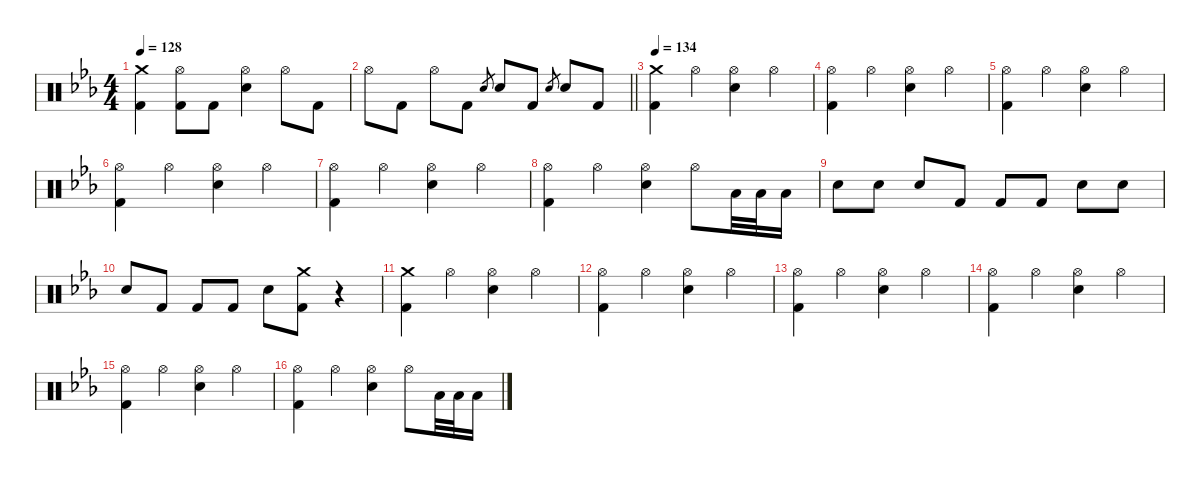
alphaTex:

\defaultSystemsLayout 4
\hideDynamics
\bracketExtendMode nobrackets
\singleTrackTrackNamePolicy hidden
\multiTrackTrackNamePolicy hidden
\firstSystemTrackNameMode fullname
\firstSystemTrackNameOrientation horizontal
\otherSystemsTrackNameOrientation horizontal
\track ("Drums" "drm.") {instrument percussion}
\staff {score}
\articulation defaults
\ts (4 4)
\tempo 128
\clef neutral
\ks cminor
("Crash medium (hit)"{acc forcenatural} "Kick (hit) 2"{acc forcenatural}).4{dy f} ("Hi-Hat (open)"{acc forcenatural} "Kick (hit) 2"{acc forcenatural}).8{dy mp} "Kick (hit) 2"{acc forcenatural}.8{dy f} ("Hi-Hat (open)"{acc forcenatural} "Snare (hit) 2"{acc forcenatural}).4{dy mp} "Hi-Hat (open)"{acc forcenatural}.8 "Kick (hit) 2"{acc forcenatural}.8{dy f} |
\barLineRight lightlight "Hi-Hat (open)"{acc forcenatural}.8{dy mp} "Kick (hit) 2"{acc forcenatural}.8{dy f} "Hi-Hat (open)"{acc forcenatural}.8{dy mp} "Kick (hit) 2"{acc forcenatural}.8{dy f} "Electric Snare (hit)"{acc forcenatural}.8{gr dy mf} "Snare (hit) 2"{acc forcenatural}.8{dy f} "Kick (hit) 2"{acc forcenatural}.8 "Electric Snare (hit)"{acc forcenatural}.8{gr dy mf} "Snare (hit) 2"{acc forcenatural}.8{dy f} "Kick (hit) 2"{acc forcenatural}.8
|
\tempo 134
("Crash medium (hit)"{acc forcenatural} "Kick (hit) 2"{acc forcenatural}).4 "Hi-Hat (open)"{acc forcenatural}.4{dy mp} ("Hi-Hat (open)"{acc forcenatural} "Snare (hit) 2"{acc forcenatural}).4 "Hi-Hat (open)"{acc forcenatural}.4 |
("Hi-Hat (open)"{acc forcenatural} "Kick (hit) 2"{acc forcenatural}).4 "Hi-Hat (open)"{acc forcenatural}.4 ("Hi-Hat (open)"{acc forcenatural} "Snare (hit) 2"{acc forcenatural}).4 "Hi-Hat (open)"{acc forcenatural}.4 |
("Hi-Hat (open)"{acc forcenatural} "Kick (hit) 2"{acc forcenatural}).4 "Hi-Hat (open)"{acc forcenatural}.4 ("Hi-Hat (open)"{acc forcenatural} "Snare (hit) 2"{acc forcenatural}).4 "Hi-Hat (open)"{acc forcenatural}.4 |
("Hi-Hat (open)"{acc forcenatural} "Kick (hit) 2"{acc forcenatural}).4 "Hi-Hat (open)"{acc forcenatural}.4 ("Hi-Hat (open)"{acc forcenatural} "Snare (hit) 2"{acc forcenatural}).4 "Hi-Hat (open)"{acc forcenatural}.4 |
("Hi-Hat (open)"{acc forcenatural} "Kick (hit) 2"{acc forcenatural}).4 "Hi-Hat (open)"{acc forcenatural}.4 ("Hi-Hat (open)"{acc forcenatural} "Snare (hit) 2"{acc forcenatural}).4 "Hi-Hat (open)"{acc forcenatural}.4 |
("Hi-Hat (open)"{acc forcenatural} "Kick (hit) 2"{acc forcenatural}).4 "Hi-Hat (open)"{acc forcenatural}.4 ("Hi-Hat (open)"{acc forcenatural} "Snare (hit) 2"{acc forcenatural}).4 "Hi-Hat (open)"{acc forcenatural}.8 "Low Tom (hit)"{acc forcenatural}.32{dy f} "Low Tom (hit)"{acc forcenatural}.32 "Low Tom (hit)"{acc forcenatural}.16 |
"Snare (hit) 2"{acc forcenatural}.8 "Snare (hit) 2"{acc forcenatural}.8 "Snare (hit) 2"{acc forcenatural}.8 "Kick (hit) 2"{acc forcenatural}.8 "Kick (hit) 2"{acc forcenatural}.8 "Kick (hit) 2"{acc forcenatural}.8 "Snare (hit) 2"{acc forcenatural}.8 "Snare (hit) 2"{acc forcenatural}.8 |
"Snare (hit) 2"{acc forcenatural}.8 "Kick (hit) 2"{acc forcenatural}.8 "Kick (hit) 2"{acc forcenatural}.8 "Kick (hit) 2"{acc forcenatural}.8 "Snare (hit) 2"{acc forcenatural}.8 ("Crash medium (hit)"{acc forcenatural} "Kick (hit) 2"{acc forcenatural}).8 r.4 |
("Crash medium (hit)"{acc forcenatural} "Kick (hit) 2"{acc forcenatural}).4 "Hi-Hat (open)"{acc forcenatural}.4{dy mp} ("Hi-Hat (open)"{acc forcenatural} "Snare (hit) 2"{acc forcenatural}).4 "Hi-Hat (open)"{acc forcenatural}.4 |
("Hi-Hat (open)"{acc forcenatural} "Kick (hit) 2"{acc forcenatural}).4 "Hi-Hat (open)"{acc forcenatural}.4 ("Hi-Hat (open)"{acc forcenatural} "Snare (hit) 2"{acc forcenatural}).4 "Hi-Hat (open)"{acc forcenatural}.4 |
("Hi-Hat (open)"{acc forcenatural} "Kick (hit) 2"{acc forcenatural}).4 "Hi-Hat (open)"{acc forcenatural}.4 ("Hi-Hat (open)"{acc forcenatural} "Snare (hit) 2"{acc forcenatural}).4 "Hi-Hat (open)"{acc forcenatural}.4 |
("Hi-Hat (open)"{acc forcenatural} "Kick (hit) 2"{acc forcenatural}).4 "Hi-Hat (open)"{acc forcenatural}.4 ("Hi-Hat (open)"{acc forcenatural} "Snare (hit) 2"{acc forcenatural}).4 "Hi-Hat (open)"{acc forcenatural}.4 |
("Hi-Hat (open)"{acc forcenatural} "Kick (hit) 2"{acc forcenatural}).4 "Hi-Hat (open)"{acc forcenatural}.4 ("Hi-Hat (open)"{acc forcenatural} "Snare (hit) 2"{acc forcenatural}).4 "Hi-Hat (open)"{acc forcenatural}.4 |
("Hi-Hat (open)"{acc forcenatural} "Kick (hit) 2"{acc forcenatural}).4 "Hi-Hat (open)"{acc forcenatural}.4 ("Hi-Hat (open)"{acc forcenatural} "Snare (hit) 2"{acc forcenatural}).4 "Hi-Hat (open)"{acc forcenatural}.8 "Low Tom (hit)"{acc forcenatural}.32{dy f} "Low Tom (hit)"{acc forcenatural}.32 "Low Tom (hit)"{acc forcenatural}.16
